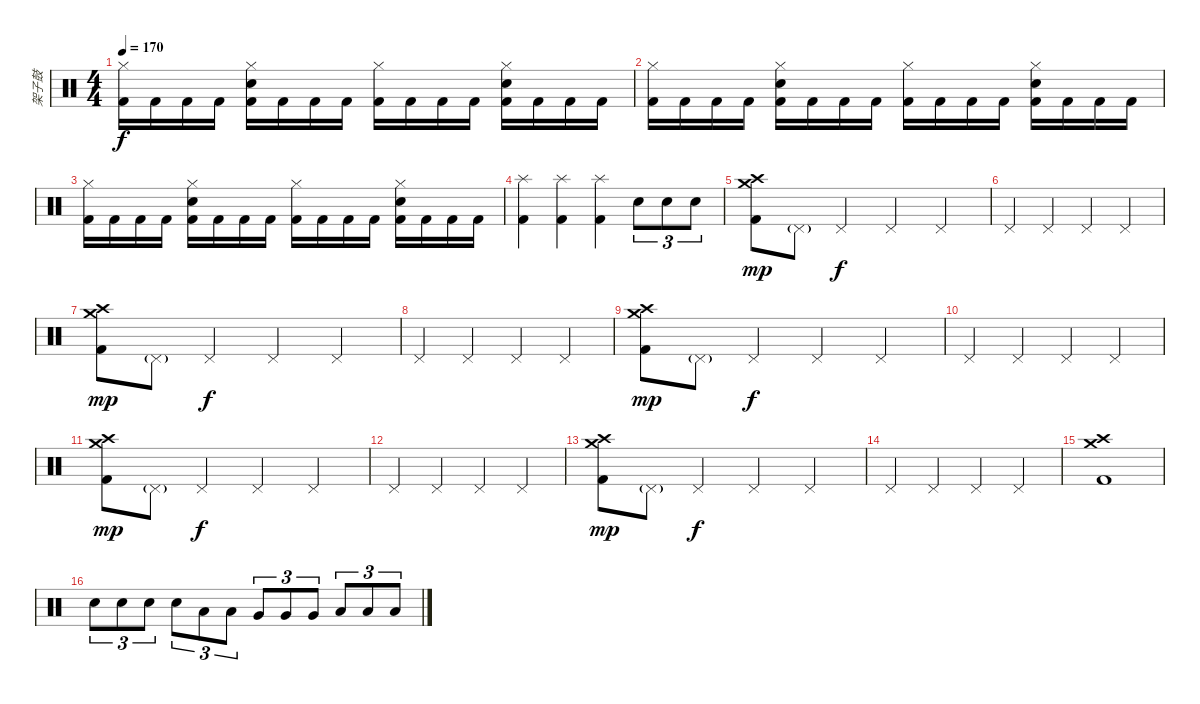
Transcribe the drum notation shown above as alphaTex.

\track ("架子鼓" "架子鼓") {instrument percussion}
\staff {score}
\articulation defaults
\ts (4 4)
\tempo 170
\clef neutral
\ks c
("Hi-Hat (closed)" "Kick (hit) 2").16{dy f} "Kick (hit) 2".16 "Kick (hit) 2".16 "Kick (hit) 2".16 ("Hi-Hat (closed)" "Snare (hit) 2" "Kick (hit) 2").16 "Kick (hit) 2".16 "Kick (hit) 2".16 "Kick (hit) 2".16 ("Hi-Hat (closed)" "Kick (hit) 2").16 "Kick (hit) 2".16 "Kick (hit) 2".16 "Kick (hit) 2".16 ("Hi-Hat (closed)" "Snare (hit) 2" "Kick (hit) 2").16 "Kick (hit) 2".16 "Kick (hit) 2".16 "Kick (hit) 2".16 |
("Hi-Hat (closed)" "Kick (hit) 2").16 "Kick (hit) 2".16 "Kick (hit) 2".16 "Kick (hit) 2".16 ("Hi-Hat (closed)" "Snare (hit) 2" "Kick (hit) 2").16 "Kick (hit) 2".16 "Kick (hit) 2".16 "Kick (hit) 2".16 ("Hi-Hat (closed)" "Kick (hit) 2").16 "Kick (hit) 2".16 "Kick (hit) 2".16 "Kick (hit) 2".16 ("Hi-Hat (closed)" "Snare (hit) 2" "Kick (hit) 2").16 "Kick (hit) 2".16 "Kick (hit) 2".16 "Kick (hit) 2".16 |
("Hi-Hat (closed)" "Kick (hit) 2").16 "Kick (hit) 2".16 "Kick (hit) 2".16 "Kick (hit) 2".16 ("Hi-Hat (closed)" "Snare (hit) 2" "Kick (hit) 2").16 "Kick (hit) 2".16 "Kick (hit) 2".16 "Kick (hit) 2".16 ("Hi-Hat (closed)" "Kick (hit) 2").16 "Kick (hit) 2".16 "Kick (hit) 2".16 "Kick (hit) 2".16 ("Hi-Hat (closed)" "Snare (hit) 2" "Kick (hit) 2").16 "Kick (hit) 2".16 "Kick (hit) 2".16 "Kick (hit) 2".16 |
("Kick (hit) 2" "Splash (hit)").4 ("Kick (hit) 2" "Splash (hit)").4 ("Kick (hit) 2" "Splash (hit)").4 "Snare (hit) 2".8{tu (3 2)} "Snare (hit) 2".8{tu (3 2)} "Snare (hit) 2".8{tu (3 2)} |
("Crash medium (hit)" "Kick (hit) 2" "Crash high (hit)").8{dy mp} "Pedal Hi-Hat (hit)"{g}.8 "Pedal Hi-Hat (hit)".4{dy f} "Pedal Hi-Hat (hit)".4 "Pedal Hi-Hat (hit)".4 |
"Pedal Hi-Hat (hit)".4 "Pedal Hi-Hat (hit)".4 "Pedal Hi-Hat (hit)".4 "Pedal Hi-Hat (hit)".4 |
("Crash medium (hit)" "Kick (hit) 2" "Crash high (hit)").8{dy mp} "Pedal Hi-Hat (hit)"{g}.8 "Pedal Hi-Hat (hit)".4{dy f} "Pedal Hi-Hat (hit)".4 "Pedal Hi-Hat (hit)".4 |
"Pedal Hi-Hat (hit)".4 "Pedal Hi-Hat (hit)".4 "Pedal Hi-Hat (hit)".4 "Pedal Hi-Hat (hit)".4 |
("Crash medium (hit)" "Kick (hit) 2" "Crash high (hit)").8{dy mp} "Pedal Hi-Hat (hit)"{g}.8 "Pedal Hi-Hat (hit)".4{dy f} "Pedal Hi-Hat (hit)".4 "Pedal Hi-Hat (hit)".4 |
"Pedal Hi-Hat (hit)".4 "Pedal Hi-Hat (hit)".4 "Pedal Hi-Hat (hit)".4 "Pedal Hi-Hat (hit)".4 |
("Crash medium (hit)" "Kick (hit) 2" "Crash high (hit)").8{dy mp} "Pedal Hi-Hat (hit)"{g}.8 "Pedal Hi-Hat (hit)".4{dy f} "Pedal Hi-Hat (hit)".4 "Pedal Hi-Hat (hit)".4 |
"Pedal Hi-Hat (hit)".4 "Pedal Hi-Hat (hit)".4 "Pedal Hi-Hat (hit)".4 "Pedal Hi-Hat (hit)".4 |
("Crash medium (hit)" "Kick (hit) 2" "Crash high (hit)").8{dy mp} "Pedal Hi-Hat (hit)"{g}.8 "Pedal Hi-Hat (hit)".4{dy f} "Pedal Hi-Hat (hit)".4 "Pedal Hi-Hat (hit)".4 |
"Pedal Hi-Hat (hit)".4 "Pedal Hi-Hat (hit)".4 "Pedal Hi-Hat (hit)".4 "Pedal Hi-Hat (hit)".4 |
("Kick (hit) 2" "Crash medium (hit)" "Crash high (hit)").1 |
"Snare (hit) 2".8{tu (3 2)} "Snare (hit) 2".8{tu (3 2)} "Snare (hit) 2".8{tu (3 2)} "Snare (hit) 2".8{tu (3 2)} "Low Tom (hit)".8{tu (3 2)} "Low Tom (hit)".8{tu (3 2)} "Very Low Tom (hit)".8{tu (3 2)} "Very Low Tom (hit)".8{tu (3 2)} "Very Low Tom (hit)".8{tu (3 2)} "Low Floor Tom (hit)".8{tu (3 2)} "Low Floor Tom (hit)".8{tu (3 2)} "Low Floor Tom (hit)".8{tu (3 2)}
